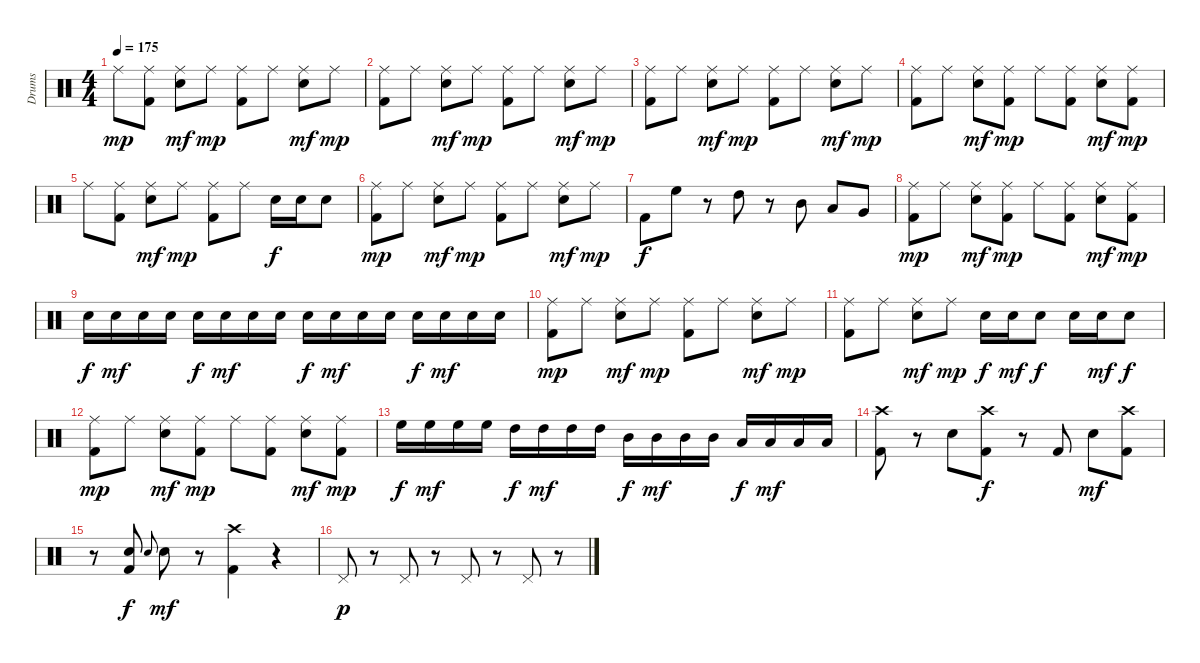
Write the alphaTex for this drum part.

\track ("Drums" "Drums") {instrument percussion}
\staff {score}
\articulation defaults
\ts (4 4)
\tempo 175
\clef neutral
\ks c "Ride (middle)".8{dy mp}
("Ride (middle)" "Kick (hit) 2").8 ("Ride (middle)" "Electric Snare (hit)").8{dy mf} "Ride (middle)".8{dy mp} ("Ride (middle)" "Kick (hit) 2").8 "Ride (middle)".8 ("Ride (middle)" "Electric Snare (hit)").8{dy mf} "Ride (middle)".8{dy mp} |
("Ride (middle)" "Kick (hit) 2").8 "Ride (middle)".8 ("Ride (middle)" "Electric Snare (hit)").8{dy mf} "Ride (middle)".8{dy mp} ("Ride (middle)" "Kick (hit) 2").8 "Ride (middle)".8 ("Ride (middle)" "Electric Snare (hit)").8{dy mf} "Ride (middle)".8{dy mp} |
("Ride (middle)" "Kick (hit) 2").8 "Ride (middle)".8 ("Ride (middle)" "Electric Snare (hit)").8{dy mf} "Ride (middle)".8{dy mp} ("Ride (middle)" "Kick (hit) 2").8 "Ride (middle)".8 ("Ride (middle)" "Electric Snare (hit)").8{dy mf} "Ride (middle)".8{dy mp} |
("Ride (middle)" "Kick (hit) 2").8 "Ride (middle)".8 ("Ride (middle)" "Electric Snare (hit)").8{dy mf} ("Ride (middle)" "Kick (hit) 2").8{dy mp} "Ride (middle)".8 ("Ride (middle)" "Kick (hit) 2").8 ("Ride (middle)" "Electric Snare (hit)").8{dy mf} ("Ride (middle)" "Kick (hit) 2").8{dy mp} |
"Ride (middle)".8 ("Ride (middle)" "Kick (hit) 2").8 ("Ride (middle)" "Electric Snare (hit)").8{dy mf} "Ride (middle)".8{dy mp} ("Ride (middle)" "Kick (hit) 2").8 "Ride (middle)".8 "Electric Snare (hit)".16{dy f} "Electric Snare (hit)".16 "Electric Snare (hit)".8 |
("Ride (middle)" "Kick (hit) 2").8{dy mp} "Ride (middle)".8 ("Ride (middle)" "Electric Snare (hit)").8{dy mf} "Ride (middle)".8{dy mp} ("Ride (middle)" "Kick (hit) 2").8 "Ride (middle)".8 ("Ride (middle)" "Electric Snare (hit)").8{dy mf} "Ride (middle)".8{dy mp} |
"Kick (hit) 2".8{dy f} "High Floor Tom (hit)".8 r.8 "High Tom (hit)".8 r.8 "Mid Tom (hit)".8 "Low Tom (hit)".8 "Very Low Tom (hit)".8 |
("Ride (middle)" "Kick (hit) 2").8{dy mp} "Ride (middle)".8 ("Ride (middle)" "Electric Snare (hit)").8{dy mf} ("Ride (middle)" "Kick (hit) 2").8{dy mp} "Ride (middle)".8 ("Ride (middle)" "Kick (hit) 2").8 ("Ride (middle)" "Electric Snare (hit)").8{dy mf} ("Ride (middle)" "Kick (hit) 2").8{dy mp} |
"Electric Snare (hit)".16{dy f} "Electric Snare (hit)".16{dy mf} "Electric Snare (hit)".16 "Electric Snare (hit)".16 "Electric Snare (hit)".16{dy f} "Electric Snare (hit)".16{dy mf} "Electric Snare (hit)".16 "Electric Snare (hit)".16 "Electric Snare (hit)".16{dy f} "Electric Snare (hit)".16{dy mf} "Electric Snare (hit)".16 "Electric Snare (hit)".16 "Electric Snare (hit)".16{dy f} "Electric Snare (hit)".16{dy mf} "Electric Snare (hit)".16 "Electric Snare (hit)".16 |
("Ride (middle)" "Kick (hit) 2").8{dy mp} "Ride (middle)".8 ("Ride (middle)" "Electric Snare (hit)").8{dy mf} "Ride (middle)".8{dy mp} ("Ride (middle)" "Kick (hit) 2").8 "Ride (middle)".8 ("Ride (middle)" "Electric Snare (hit)").8{dy mf} "Ride (middle)".8{dy mp} |
("Ride (middle)" "Kick (hit) 2").8 "Ride (middle)".8 ("Ride (middle)" "Electric Snare (hit)").8{dy mf} "Ride (middle)".8{dy mp} "Electric Snare (hit)".16{dy f} "Electric Snare (hit)".16{dy mf} "Electric Snare (hit)".8{dy f} "Electric Snare (hit)".16 "Electric Snare (hit)".16{dy mf} "Electric Snare (hit)".8{dy f} |
("Ride (middle)" "Kick (hit) 2").8{dy mp} "Ride (middle)".8 ("Ride (middle)" "Electric Snare (hit)").8{dy mf} ("Ride (middle)" "Kick (hit) 2").8{dy mp} "Ride (middle)".8 ("Ride (middle)" "Kick (hit) 2").8 ("Ride (middle)" "Electric Snare (hit)").8{dy mf} ("Ride (middle)" "Kick (hit) 2").8{dy mp} |
"High Floor Tom (hit)".16{dy f} "High Floor Tom (hit)".16{dy mf} "High Floor Tom (hit)".16 "High Floor Tom (hit)".16 "High Tom (hit)".16{dy f} "High Tom (hit)".16{dy mf} "High Tom (hit)".16 "High Tom (hit)".16 "Mid Tom (hit)".16{dy f} "Mid Tom (hit)".16{dy mf} "Mid Tom (hit)".16 "Mid Tom (hit)".16 "Low Tom (hit)".16{dy f} "Low Tom (hit)".16{dy mf} "Low Tom (hit)".16 "Low Tom (hit)".16 |
("Crash high (hit)" "Kick (hit) 2").8 r.8 "Electric Snare (hit)".8 ("Crash high (hit)" "Kick (hit) 2").8{dy f} r.8 "Kick (hit) 2".8 "Electric Snare (hit)".8{dy mf} ("Crash high (hit)" "Kick (hit) 2").8 |
r.8 ("Electric Snare (hit)" "Kick (hit) 2").8{dy f} "Electric Snare (hit)".8{gr onbeat} "Electric Snare (hit)".8{dy mf} r.8 ("Crash high (hit)" "Kick (hit) 2").4 r.4 |
"Pedal Hi-Hat (hit)".8{dy p} r.8 "Pedal Hi-Hat (hit)".8 r.8 "Pedal Hi-Hat (hit)".8 r.8 "Pedal Hi-Hat (hit)".8 r.8
